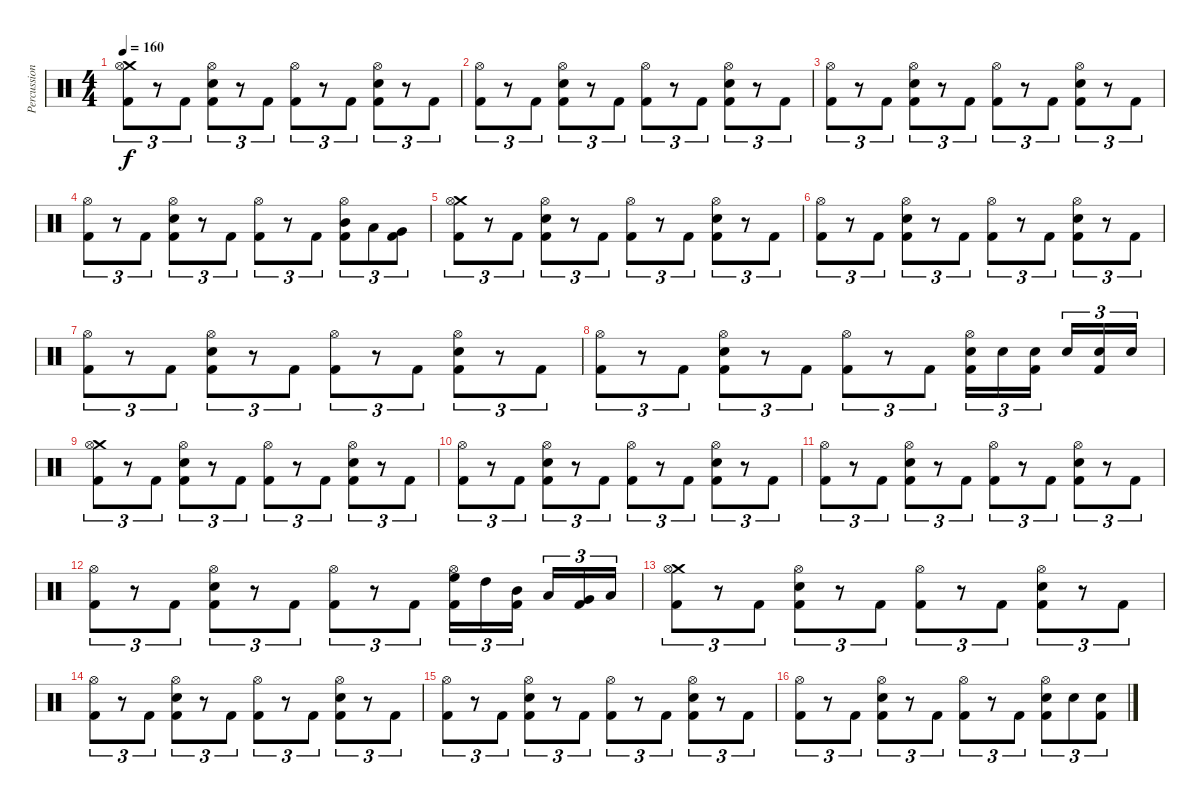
\track ("Percussion" "Percussion") {instrument percussion}
\staff {score}
\articulation defaults
\ts (4 4)
\tempo 160
\clef neutral
\ks c
("Crash medium (hit)" "Hi-Hat (open)" "Kick (hit) 2").8{tu (3 2) dy f} r.8{tu (3 2)} "Kick (hit) 2".8{tu (3 2)} ("Hi-Hat (open)" "Electric Snare (hit)" "Kick (hit) 2").8{tu (3 2)} r.8{tu (3 2)} "Kick (hit) 2".8{tu (3 2)} ("Hi-Hat (open)" "Kick (hit) 2").8{tu (3 2)} r.8{tu (3 2)} "Kick (hit) 2".8{tu (3 2)} ("Hi-Hat (open)" "Electric Snare (hit)" "Kick (hit) 2").8{tu (3 2)} r.8{tu (3 2)} "Kick (hit) 2".8{tu (3 2)} |
("Hi-Hat (open)" "Kick (hit) 2").8{tu (3 2)} r.8{tu (3 2)} "Kick (hit) 2".8{tu (3 2)} ("Hi-Hat (open)" "Electric Snare (hit)" "Kick (hit) 2").8{tu (3 2)} r.8{tu (3 2)} "Kick (hit) 2".8{tu (3 2)} ("Hi-Hat (open)" "Kick (hit) 2").8{tu (3 2)} r.8{tu (3 2)} "Kick (hit) 2".8{tu (3 2)} ("Hi-Hat (open)" "Electric Snare (hit)" "Kick (hit) 2").8{tu (3 2)} r.8{tu (3 2)} "Kick (hit) 2".8{tu (3 2)} |
("Hi-Hat (open)" "Kick (hit) 2").8{tu (3 2)} r.8{tu (3 2)} "Kick (hit) 2".8{tu (3 2)} ("Hi-Hat (open)" "Electric Snare (hit)" "Kick (hit) 2").8{tu (3 2)} r.8{tu (3 2)} "Kick (hit) 2".8{tu (3 2)} ("Hi-Hat (open)" "Kick (hit) 2").8{tu (3 2)} r.8{tu (3 2)} "Kick (hit) 2".8{tu (3 2)} ("Hi-Hat (open)" "Electric Snare (hit)" "Kick (hit) 2").8{tu (3 2)} r.8{tu (3 2)} "Kick (hit) 2".8{tu (3 2)} |
("Hi-Hat (open)" "Kick (hit) 2").8{tu (3 2)} r.8{tu (3 2)} "Kick (hit) 2".8{tu (3 2)} ("Hi-Hat (open)" "Electric Snare (hit)" "Kick (hit) 2").8{tu (3 2)} r.8{tu (3 2)} "Kick (hit) 2".8{tu (3 2)} ("Hi-Hat (open)" "Kick (hit) 2").8{tu (3 2)} r.8{tu (3 2)} "Kick (hit) 2".8{tu (3 2)} ("Hi-Hat (open)" "Mid Tom (hit)" "Kick (hit) 2").8{tu (3 2)} "Low Tom (hit)".8{tu (3 2)} ("Very Low Tom (hit)" "Kick (hit) 2").8{tu (3 2)} |
("Crash medium (hit)" "Hi-Hat (open)" "Kick (hit) 2").8{tu (3 2)} r.8{tu (3 2)} "Kick (hit) 2".8{tu (3 2)} ("Hi-Hat (open)" "Electric Snare (hit)" "Kick (hit) 2").8{tu (3 2)} r.8{tu (3 2)} "Kick (hit) 2".8{tu (3 2)} ("Hi-Hat (open)" "Kick (hit) 2").8{tu (3 2)} r.8{tu (3 2)} "Kick (hit) 2".8{tu (3 2)} ("Hi-Hat (open)" "Electric Snare (hit)" "Kick (hit) 2").8{tu (3 2)} r.8{tu (3 2)} "Kick (hit) 2".8{tu (3 2)} |
("Hi-Hat (open)" "Kick (hit) 2").8{tu (3 2)} r.8{tu (3 2)} "Kick (hit) 2".8{tu (3 2)} ("Hi-Hat (open)" "Electric Snare (hit)" "Kick (hit) 2").8{tu (3 2)} r.8{tu (3 2)} "Kick (hit) 2".8{tu (3 2)} ("Hi-Hat (open)" "Kick (hit) 2").8{tu (3 2)} r.8{tu (3 2)} "Kick (hit) 2".8{tu (3 2)} ("Hi-Hat (open)" "Electric Snare (hit)" "Kick (hit) 2").8{tu (3 2)} r.8{tu (3 2)} "Kick (hit) 2".8{tu (3 2)} |
("Hi-Hat (open)" "Kick (hit) 2").8{tu (3 2)} r.8{tu (3 2)} "Kick (hit) 2".8{tu (3 2)} ("Hi-Hat (open)" "Electric Snare (hit)" "Kick (hit) 2").8{tu (3 2)} r.8{tu (3 2)} "Kick (hit) 2".8{tu (3 2)} ("Hi-Hat (open)" "Kick (hit) 2").8{tu (3 2)} r.8{tu (3 2)} "Kick (hit) 2".8{tu (3 2)} ("Hi-Hat (open)" "Electric Snare (hit)" "Kick (hit) 2").8{tu (3 2)} r.8{tu (3 2)} "Kick (hit) 2".8{tu (3 2)} |
("Hi-Hat (open)" "Kick (hit) 2").8{tu (3 2)} r.8{tu (3 2)} "Kick (hit) 2".8{tu (3 2)} ("Hi-Hat (open)" "Electric Snare (hit)" "Kick (hit) 2").8{tu (3 2)} r.8{tu (3 2)} "Kick (hit) 2".8{tu (3 2)} ("Hi-Hat (open)" "Kick (hit) 2").8{tu (3 2)} r.8{tu (3 2)} "Kick (hit) 2".8{tu (3 2)} ("Hi-Hat (open)" "Electric Snare (hit)" "Kick (hit) 2").16{tu (3 2)} "Electric Snare (hit)".16{tu (3 2)} ("Electric Snare (hit)" "Kick (hit) 2").16{tu (3 2)} "Electric Snare (hit)".16{tu (3 2)} ("Electric Snare (hit)" "Kick (hit) 2").16{tu (3 2)} "Electric Snare (hit)".16{tu (3 2)} |
("Crash medium (hit)" "Hi-Hat (open)" "Kick (hit) 2").8{tu (3 2)} r.8{tu (3 2)} "Kick (hit) 2".8{tu (3 2)} ("Hi-Hat (open)" "Electric Snare (hit)" "Kick (hit) 2").8{tu (3 2)} r.8{tu (3 2)} "Kick (hit) 2".8{tu (3 2)} ("Hi-Hat (open)" "Kick (hit) 2").8{tu (3 2)} r.8{tu (3 2)} "Kick (hit) 2".8{tu (3 2)} ("Hi-Hat (open)" "Electric Snare (hit)" "Kick (hit) 2").8{tu (3 2)} r.8{tu (3 2)} "Kick (hit) 2".8{tu (3 2)} |
("Hi-Hat (open)" "Kick (hit) 2").8{tu (3 2)} r.8{tu (3 2)} "Kick (hit) 2".8{tu (3 2)} ("Hi-Hat (open)" "Electric Snare (hit)" "Kick (hit) 2").8{tu (3 2)} r.8{tu (3 2)} "Kick (hit) 2".8{tu (3 2)} ("Hi-Hat (open)" "Kick (hit) 2").8{tu (3 2)} r.8{tu (3 2)} "Kick (hit) 2".8{tu (3 2)} ("Hi-Hat (open)" "Electric Snare (hit)" "Kick (hit) 2").8{tu (3 2)} r.8{tu (3 2)} "Kick (hit) 2".8{tu (3 2)} |
("Hi-Hat (open)" "Kick (hit) 2").8{tu (3 2)} r.8{tu (3 2)} "Kick (hit) 2".8{tu (3 2)} ("Hi-Hat (open)" "Electric Snare (hit)" "Kick (hit) 2").8{tu (3 2)} r.8{tu (3 2)} "Kick (hit) 2".8{tu (3 2)} ("Hi-Hat (open)" "Kick (hit) 2").8{tu (3 2)} r.8{tu (3 2)} "Kick (hit) 2".8{tu (3 2)} ("Hi-Hat (open)" "Electric Snare (hit)" "Kick (hit) 2").8{tu (3 2)} r.8{tu (3 2)} "Kick (hit) 2".8{tu (3 2)} |
("Hi-Hat (open)" "Kick (hit) 2").8{tu (3 2)} r.8{tu (3 2)} "Kick (hit) 2".8{tu (3 2)} ("Hi-Hat (open)" "Electric Snare (hit)" "Kick (hit) 2").8{tu (3 2)} r.8{tu (3 2)} "Kick (hit) 2".8{tu (3 2)} ("Hi-Hat (open)" "Kick (hit) 2").8{tu (3 2)} r.8{tu (3 2)} "Kick (hit) 2".8{tu (3 2)} ("Hi-Hat (open)" "High Floor Tom (hit)" "Kick (hit) 2").16{tu (3 2)} "High Tom (hit)".16{tu (3 2)} ("Mid Tom (hit)" "Kick (hit) 2").16{tu (3 2)} "Low Tom (hit)".16{tu (3 2)} ("Very Low Tom (hit)" "Kick (hit) 2").16{tu (3 2)} "Low Floor Tom (hit)".16{tu (3 2)} |
("Crash medium (hit)" "Hi-Hat (open)" "Kick (hit) 2").8{tu (3 2)} r.8{tu (3 2)} "Kick (hit) 2".8{tu (3 2)} ("Hi-Hat (open)" "Electric Snare (hit)" "Kick (hit) 2").8{tu (3 2)} r.8{tu (3 2)} "Kick (hit) 2".8{tu (3 2)} ("Hi-Hat (open)" "Kick (hit) 2").8{tu (3 2)} r.8{tu (3 2)} "Kick (hit) 2".8{tu (3 2)} ("Hi-Hat (open)" "Electric Snare (hit)" "Kick (hit) 2").8{tu (3 2)} r.8{tu (3 2)} "Kick (hit) 2".8{tu (3 2)} |
("Hi-Hat (open)" "Kick (hit) 2").8{tu (3 2)} r.8{tu (3 2)} "Kick (hit) 2".8{tu (3 2)} ("Hi-Hat (open)" "Electric Snare (hit)" "Kick (hit) 2").8{tu (3 2)} r.8{tu (3 2)} "Kick (hit) 2".8{tu (3 2)} ("Hi-Hat (open)" "Kick (hit) 2").8{tu (3 2)} r.8{tu (3 2)} "Kick (hit) 2".8{tu (3 2)} ("Hi-Hat (open)" "Electric Snare (hit)" "Kick (hit) 2").8{tu (3 2)} r.8{tu (3 2)} "Kick (hit) 2".8{tu (3 2)} |
("Hi-Hat (open)" "Kick (hit) 2").8{tu (3 2)} r.8{tu (3 2)} "Kick (hit) 2".8{tu (3 2)} ("Hi-Hat (open)" "Electric Snare (hit)" "Kick (hit) 2").8{tu (3 2)} r.8{tu (3 2)} "Kick (hit) 2".8{tu (3 2)} ("Hi-Hat (open)" "Kick (hit) 2").8{tu (3 2)} r.8{tu (3 2)} "Kick (hit) 2".8{tu (3 2)} ("Hi-Hat (open)" "Electric Snare (hit)" "Kick (hit) 2").8{tu (3 2)} r.8{tu (3 2)} "Kick (hit) 2".8{tu (3 2)} |
("Hi-Hat (open)" "Kick (hit) 2").8{tu (3 2)} r.8{tu (3 2)} "Kick (hit) 2".8{tu (3 2)} ("Hi-Hat (open)" "Electric Snare (hit)" "Kick (hit) 2").8{tu (3 2)} r.8{tu (3 2)} "Kick (hit) 2".8{tu (3 2)} ("Hi-Hat (open)" "Kick (hit) 2").8{tu (3 2)} r.8{tu (3 2)} "Kick (hit) 2".8{tu (3 2)} ("Hi-Hat (open)" "Electric Snare (hit)" "Kick (hit) 2").8{tu (3 2)} "Electric Snare (hit)".8{tu (3 2)} ("Electric Snare (hit)" "Kick (hit) 2").8{tu (3 2)}
